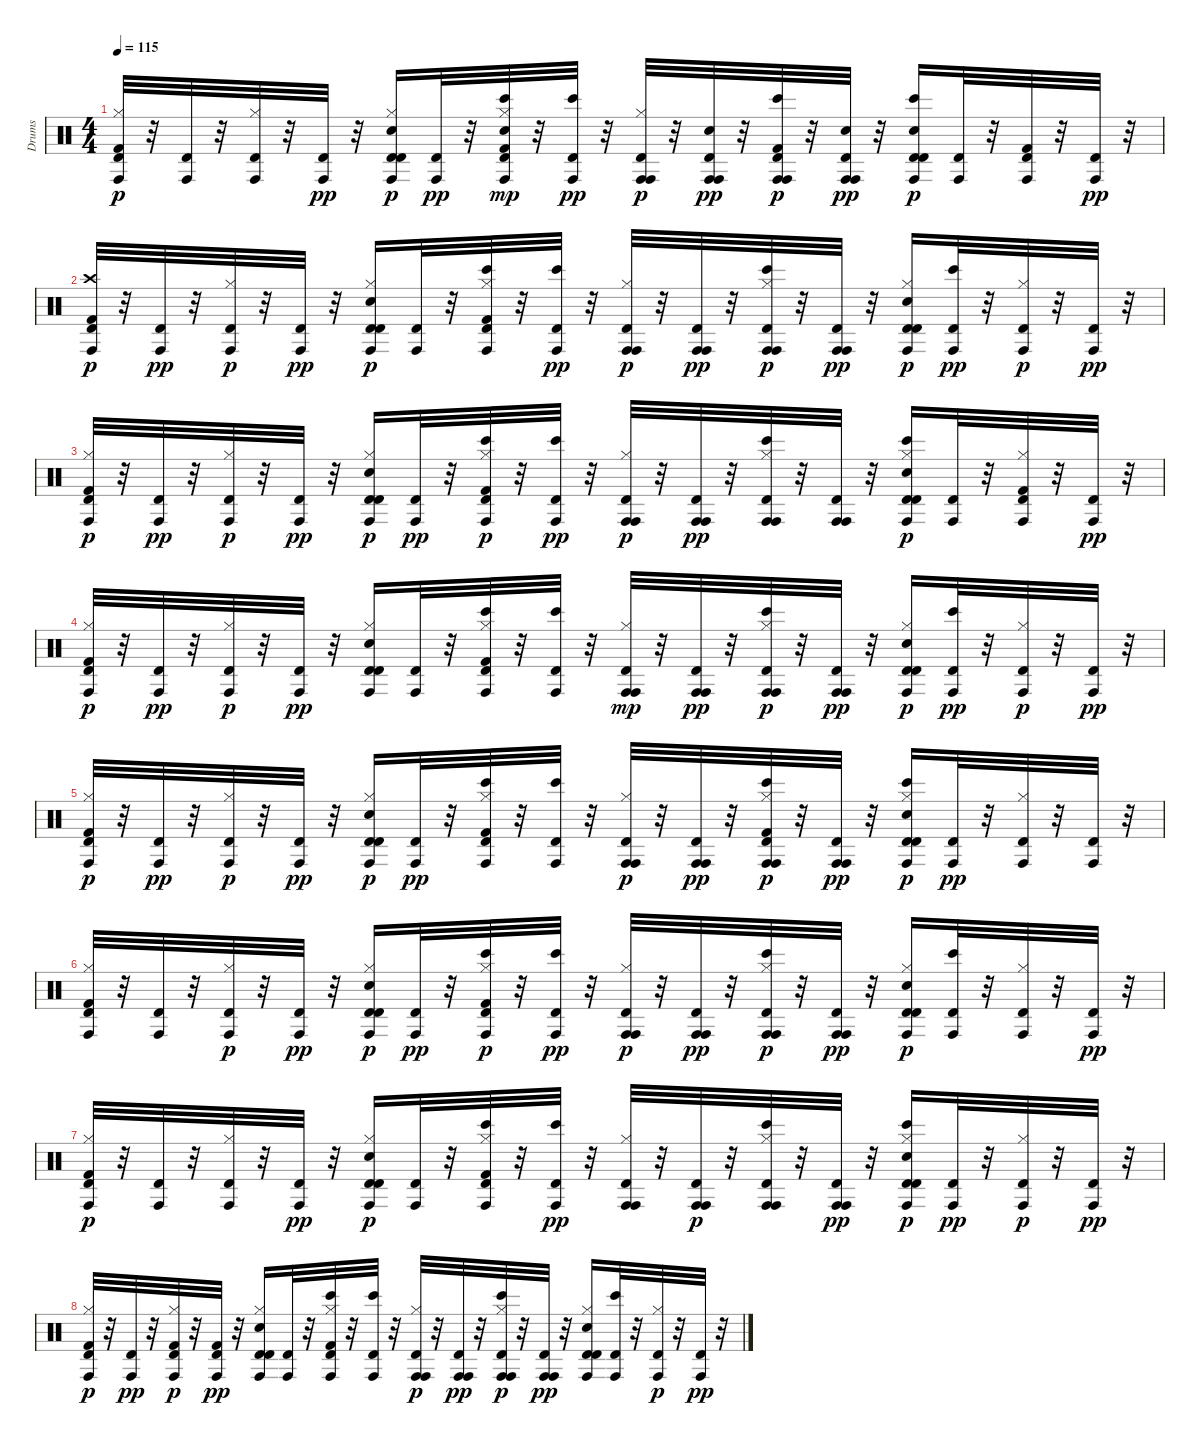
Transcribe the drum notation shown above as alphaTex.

\track ("Drums" "Drums") {instrument percussion}
\staff {score}
\articulation defaults
\ts (4 4)
\tempo 115
\clef neutral
\ks c
("Conga high (hit)" "Hi-Hat (closed)" "Kick (hit) 2" "Timbale high (hit)").32{dy p} r.32 ("Conga high (hit)" "Timbale high (hit)").32 r.32 ("Conga high (hit)" "Hi-Hat (closed)" "Timbale high (hit)").32 r.32 ("Conga high (hit)" "Timbale high (hit)").32{dy pp} r.32 ("Conga high (hit)" "Timbale high (hit)" "Hi-Hat (closed)" "Electric Snare (hit)" "Timbale high (hit)").16{dy p} ("Conga high (hit)" "Timbale high (hit)").32{dy pp} r.32 ("Conga high (hit)" "Bongo High (hit)" "Electric Snare (hit)" "Hi-Hat (closed)" "Kick (hit) 2" "Timbale high (hit)").32{dy mp} r.32 ("Conga high (hit)" "Bongo High (hit)" "Timbale high (hit)").32{dy pp} r.32 ("Conga high (hit)" "Conga high (hit)" "Hi-Hat (closed)" "Timbale high (hit)").32{dy p} r.32 ("Conga high (hit)" "Conga high (hit)" "Electric Snare (hit)" "Timbale high (hit)").32{dy pp} r.32 ("Conga high (hit)" "Conga high (hit)" "Bongo High (hit)" "Kick (hit) 2" "Timbale high (hit)").32{dy p} r.32 ("Conga high (hit)" "Conga high (hit)" "Electric Snare (hit)" "Timbale high (hit)").32{dy pp} r.32 ("Conga high (hit)" "Bongo High (hit)" "Timbale high (hit)" "Electric Snare (hit)" "Timbale high (hit)").16{dy p} ("Conga high (hit)" "Timbale high (hit)").32 r.32 ("Conga high (hit)" "Kick (hit) 2" "Timbale high (hit)").32 r.32 ("Conga high (hit)" "Timbale high (hit)").32{dy pp} r.32 |
("Conga high (hit)" "Crash high (hit)" "Kick (hit) 2" "Timbale high (hit)").32{dy p} r.32 ("Conga high (hit)" "Timbale high (hit)").32{dy pp} r.32 ("Conga high (hit)" "Hi-Hat (closed)" "Timbale high (hit)").32{dy p} r.32 ("Conga high (hit)" "Timbale high (hit)").32{dy pp} r.32 ("Conga high (hit)" "Timbale high (hit)" "Hi-Hat (closed)" "Electric Snare (hit)" "Timbale high (hit)").16{dy p} ("Conga high (hit)" "Timbale high (hit)").32 r.32 ("Conga high (hit)" "Bongo High (hit)" "Hi-Hat (closed)" "Kick (hit) 2" "Timbale high (hit)").32 r.32 ("Conga high (hit)" "Bongo High (hit)" "Timbale high (hit)").32{dy pp} r.32 ("Conga high (hit)" "Conga high (hit)" "Hi-Hat (closed)" "Timbale high (hit)").32{dy p} r.32 ("Conga high (hit)" "Conga high (hit)" "Timbale high (hit)").32{dy pp} r.32 ("Conga high (hit)" "Conga high (hit)" "Bongo High (hit)" "Hi-Hat (closed)" "Timbale high (hit)").32{dy p} r.32 ("Conga high (hit)" "Conga high (hit)" "Timbale high (hit)").32{dy pp} r.32 ("Conga high (hit)" "Timbale high (hit)" "Hi-Hat (closed)" "Electric Snare (hit)" "Timbale high (hit)").16{dy p} ("Conga high (hit)" "Bongo High (hit)" "Timbale high (hit)").32{dy pp} r.32 ("Conga high (hit)" "Hi-Hat (closed)" "Timbale high (hit)").32{dy p} r.32 ("Conga high (hit)" "Timbale high (hit)").32{dy pp} r.32 |
("Conga high (hit)" "Hi-Hat (closed)" "Kick (hit) 2" "Timbale high (hit)").32{dy p} r.32 ("Conga high (hit)" "Timbale high (hit)").32{dy pp} r.32 ("Conga high (hit)" "Hi-Hat (closed)" "Timbale high (hit)").32{dy p} r.32 ("Conga high (hit)" "Timbale high (hit)").32{dy pp} r.32 ("Conga high (hit)" "Timbale high (hit)" "Hi-Hat (closed)" "Electric Snare (hit)" "Timbale high (hit)").16{dy p} ("Conga high (hit)" "Timbale high (hit)").32{dy pp} r.32 ("Conga high (hit)" "Bongo High (hit)" "Hi-Hat (closed)" "Kick (hit) 2" "Timbale high (hit)").32{dy p} r.32 ("Conga high (hit)" "Bongo High (hit)" "Timbale high (hit)").32{dy pp} r.32 ("Conga high (hit)" "Conga high (hit)" "Hi-Hat (closed)" "Timbale high (hit)").32{dy p} r.32 ("Conga high (hit)" "Conga high (hit)" "Timbale high (hit)").32{dy pp} r.32 ("Conga high (hit)" "Conga high (hit)" "Bongo High (hit)" "Hi-Hat (closed)" "Timbale high (hit)").32 r.32 ("Conga high (hit)" "Conga high (hit)" "Timbale high (hit)").32 r.32 ("Conga high (hit)" "Bongo High (hit)" "Timbale high (hit)" "Hi-Hat (closed)" "Electric Snare (hit)" "Timbale high (hit)").16{dy p} ("Conga high (hit)" "Timbale high (hit)").32 r.32 ("Conga high (hit)" "Kick (hit) 2" "Hi-Hat (closed)" "Timbale high (hit)").32 r.32 ("Conga high (hit)" "Timbale high (hit)").32{dy pp} r.32 |
("Conga high (hit)" "Hi-Hat (closed)" "Kick (hit) 2" "Timbale high (hit)").32{dy p} r.32 ("Conga high (hit)" "Timbale high (hit)").32{dy pp} r.32 ("Conga high (hit)" "Hi-Hat (closed)" "Timbale high (hit)").32{dy p} r.32 ("Conga high (hit)" "Timbale high (hit)").32{dy pp} r.32 ("Conga high (hit)" "Timbale high (hit)" "Hi-Hat (closed)" "Electric Snare (hit)" "Timbale high (hit)").16 ("Conga high (hit)" "Timbale high (hit)").32 r.32 ("Conga high (hit)" "Bongo High (hit)" "Hi-Hat (closed)" "Kick (hit) 2" "Timbale high (hit)").32 r.32 ("Conga high (hit)" "Bongo High (hit)" "Timbale high (hit)").32 r.32 ("Conga high (hit)" "Conga high (hit)" "Hi-Hat (closed)" "Timbale high (hit)").32{dy mp} r.32 ("Conga high (hit)" "Conga high (hit)" "Timbale high (hit)").32{dy pp} r.32 ("Conga high (hit)" "Conga high (hit)" "Bongo High (hit)" "Hi-Hat (closed)" "Timbale high (hit)").32{dy p} r.32 ("Conga high (hit)" "Conga high (hit)" "Timbale high (hit)").32{dy pp} r.32 ("Conga high (hit)" "Timbale high (hit)" "Hi-Hat (closed)" "Electric Snare (hit)" "Timbale high (hit)").16{dy p} ("Conga high (hit)" "Bongo High (hit)" "Timbale high (hit)").32{dy pp} r.32 ("Conga high (hit)" "Hi-Hat (closed)" "Timbale high (hit)").32{dy p} r.32 ("Conga high (hit)" "Timbale high (hit)").32{dy pp} r.32 |
("Conga high (hit)" "Hi-Hat (closed)" "Kick (hit) 2" "Timbale high (hit)").32{dy p} r.32 ("Conga high (hit)" "Timbale high (hit)").32{dy pp} r.32 ("Conga high (hit)" "Hi-Hat (closed)" "Timbale high (hit)").32{dy p} r.32 ("Conga high (hit)" "Timbale high (hit)").32{dy pp} r.32 ("Conga high (hit)" "Timbale high (hit)" "Hi-Hat (closed)" "Electric Snare (hit)" "Timbale high (hit)").16{dy p} ("Conga high (hit)" "Timbale high (hit)").32{dy pp} r.32 ("Conga high (hit)" "Bongo High (hit)" "Hi-Hat (closed)" "Kick (hit) 2" "Timbale high (hit)").32 r.32 ("Conga high (hit)" "Bongo High (hit)" "Timbale high (hit)").32 r.32 ("Conga high (hit)" "Conga high (hit)" "Hi-Hat (closed)" "Timbale high (hit)").32{dy p} r.32 ("Conga high (hit)" "Conga high (hit)" "Timbale high (hit)").32{dy pp} r.32 ("Conga high (hit)" "Conga high (hit)" "Bongo High (hit)" "Kick (hit) 2" "Hi-Hat (closed)" "Timbale high (hit)").32{dy p} r.32 ("Conga high (hit)" "Conga high (hit)" "Timbale high (hit)").32{dy pp} r.32 ("Conga high (hit)" "Bongo High (hit)" "Timbale high (hit)" "Hi-Hat (closed)" "Electric Snare (hit)" "Timbale high (hit)").16{dy p} ("Conga high (hit)" "Timbale high (hit)").32{dy pp} r.32 ("Conga high (hit)" "Hi-Hat (closed)" "Timbale high (hit)").32 r.32 ("Conga high (hit)" "Timbale high (hit)").32 r.32 |
("Conga high (hit)" "Hi-Hat (closed)" "Kick (hit) 2" "Timbale high (hit)").32 r.32 ("Conga high (hit)" "Timbale high (hit)").32 r.32 ("Conga high (hit)" "Hi-Hat (closed)" "Timbale high (hit)").32{dy p} r.32 ("Conga high (hit)" "Timbale high (hit)").32{dy pp} r.32 ("Conga high (hit)" "Timbale high (hit)" "Hi-Hat (closed)" "Electric Snare (hit)" "Timbale high (hit)").16{dy p} ("Conga high (hit)" "Timbale high (hit)").32{dy pp} r.32 ("Conga high (hit)" "Bongo High (hit)" "Hi-Hat (closed)" "Kick (hit) 2" "Timbale high (hit)").32{dy p} r.32 ("Conga high (hit)" "Bongo High (hit)" "Timbale high (hit)").32{dy pp} r.32 ("Conga high (hit)" "Conga high (hit)" "Hi-Hat (closed)" "Timbale high (hit)").32{dy p} r.32 ("Conga high (hit)" "Conga high (hit)" "Timbale high (hit)").32{dy pp} r.32 ("Conga high (hit)" "Conga high (hit)" "Bongo High (hit)" "Hi-Hat (closed)" "Timbale high (hit)").32{dy p} r.32 ("Conga high (hit)" "Conga high (hit)" "Timbale high (hit)").32{dy pp} r.32 ("Conga high (hit)" "Timbale high (hit)" "Hi-Hat (closed)" "Electric Snare (hit)" "Timbale high (hit)").16{dy p} ("Conga high (hit)" "Bongo High (hit)" "Timbale high (hit)").32 r.32 ("Conga high (hit)" "Hi-Hat (closed)" "Timbale high (hit)").32 r.32 ("Conga high (hit)" "Timbale high (hit)").32{dy pp} r.32 |
("Conga high (hit)" "Hi-Hat (closed)" "Kick (hit) 2" "Timbale high (hit)").32{dy p} r.32 ("Conga high (hit)" "Timbale high (hit)").32 r.32 ("Conga high (hit)" "Hi-Hat (closed)" "Timbale high (hit)").32 r.32 ("Conga high (hit)" "Timbale high (hit)").32{dy pp} r.32 ("Conga high (hit)" "Timbale high (hit)" "Hi-Hat (closed)" "Electric Snare (hit)" "Timbale high (hit)").16{dy p} ("Conga high (hit)" "Timbale high (hit)").32 r.32 ("Conga high (hit)" "Bongo High (hit)" "Hi-Hat (closed)" "Kick (hit) 2" "Timbale high (hit)").32 r.32 ("Conga high (hit)" "Bongo High (hit)" "Timbale high (hit)").32{dy pp} r.32 ("Conga high (hit)" "Conga high (hit)" "Hi-Hat (closed)" "Timbale high (hit)").32 r.32 ("Conga high (hit)" "Conga high (hit)" "Timbale high (hit)").32{dy p} r.32 ("Conga high (hit)" "Conga high (hit)" "Bongo High (hit)" "Hi-Hat (closed)" "Timbale high (hit)").32 r.32 ("Conga high (hit)" "Conga high (hit)" "Timbale high (hit)").32{dy pp} r.32 ("Conga high (hit)" "Bongo High (hit)" "Timbale high (hit)" "Hi-Hat (closed)" "Electric Snare (hit)" "Timbale high (hit)").16{dy p} ("Conga high (hit)" "Timbale high (hit)").32{dy pp} r.32 ("Conga high (hit)" "Hi-Hat (closed)" "Timbale high (hit)").32{dy p} r.32 ("Conga high (hit)" "Timbale high (hit)").32{dy pp} r.32 |
("Conga high (hit)" "Hi-Hat (closed)" "Kick (hit) 2" "Timbale high (hit)").32{dy p} r.32 ("Conga high (hit)" "Timbale high (hit)").32{dy pp} r.32 ("Conga high (hit)" "Kick (hit) 2" "Hi-Hat (closed)" "Timbale high (hit)").32{dy p} r.32 ("Conga high (hit)" "Kick (hit) 2" "Timbale high (hit)").32{dy pp} r.32 ("Conga high (hit)" "Timbale high (hit)" "Hi-Hat (closed)" "Electric Snare (hit)" "Timbale high (hit)").16 ("Conga high (hit)" "Timbale high (hit)").32 r.32 ("Conga high (hit)" "Bongo High (hit)" "Hi-Hat (closed)" "Kick (hit) 2" "Timbale high (hit)").32 r.32 ("Conga high (hit)" "Bongo High (hit)" "Timbale high (hit)").32 r.32 ("Conga high (hit)" "Conga high (hit)" "Hi-Hat (closed)" "Timbale high (hit)").32{dy p} r.32 ("Conga high (hit)" "Conga high (hit)" "Timbale high (hit)").32{dy pp} r.32 ("Conga high (hit)" "Conga high (hit)" "Bongo High (hit)" "Hi-Hat (closed)" "Timbale high (hit)").32{dy p} r.32 ("Conga high (hit)" "Conga high (hit)" "Timbale high (hit)").32{dy pp} r.32 ("Conga high (hit)" "Timbale high (hit)" "Hi-Hat (closed)" "Electric Snare (hit)" "Timbale high (hit)").16 ("Conga high (hit)" "Bongo High (hit)" "Timbale high (hit)").32 r.32 ("Conga high (hit)" "Hi-Hat (closed)" "Timbale high (hit)").32{dy p} r.32 ("Conga high (hit)" "Timbale high (hit)").32{dy pp} r.32
